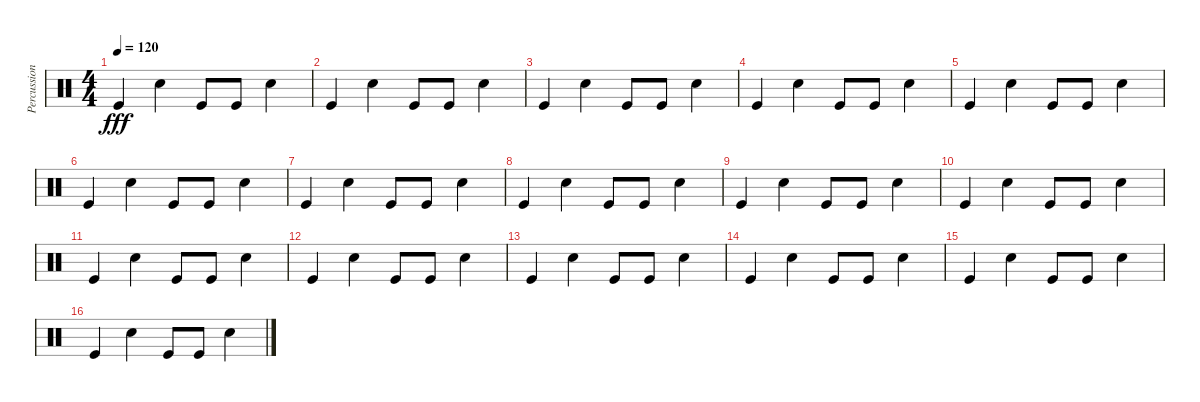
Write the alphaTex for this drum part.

\track ("Percussion" "Percussion") {instrument percussion}
\staff {score}
\articulation defaults
\ts (4 4)
\tempo 120
\clef neutral
\ks c "Kick (hit)".4{dy fff} "Snare (hit) 2".4 "Kick (hit)".8 "Kick (hit)".8 "Snare (hit) 2".4
|
"Kick (hit)".4 "Snare (hit) 2".4 "Kick (hit)".8 "Kick (hit)".8 "Snare (hit) 2".4 |
"Kick (hit)".4 "Snare (hit) 2".4 "Kick (hit)".8 "Kick (hit)".8 "Snare (hit) 2".4 |
"Kick (hit)".4 "Snare (hit) 2".4 "Kick (hit)".8 "Kick (hit)".8 "Snare (hit) 2".4 |
"Kick (hit)".4 "Snare (hit) 2".4 "Kick (hit)".8 "Kick (hit)".8 "Snare (hit) 2".4 |
"Kick (hit)".4 "Snare (hit) 2".4 "Kick (hit)".8 "Kick (hit)".8 "Snare (hit) 2".4 |
"Kick (hit)".4 "Snare (hit) 2".4 "Kick (hit)".8 "Kick (hit)".8 "Snare (hit) 2".4 |
"Kick (hit)".4 "Snare (hit) 2".4 "Kick (hit)".8 "Kick (hit)".8 "Snare (hit) 2".4 |
"Kick (hit)".4 "Snare (hit) 2".4 "Kick (hit)".8 "Kick (hit)".8 "Snare (hit) 2".4 |
"Kick (hit)".4 "Snare (hit) 2".4 "Kick (hit)".8 "Kick (hit)".8 "Snare (hit) 2".4 |
"Kick (hit)".4 "Snare (hit) 2".4 "Kick (hit)".8 "Kick (hit)".8 "Snare (hit) 2".4 |
"Kick (hit)".4 "Snare (hit) 2".4 "Kick (hit)".8 "Kick (hit)".8 "Snare (hit) 2".4 |
"Kick (hit)".4 "Snare (hit) 2".4 "Kick (hit)".8 "Kick (hit)".8 "Snare (hit) 2".4 |
"Kick (hit)".4 "Snare (hit) 2".4 "Kick (hit)".8 "Kick (hit)".8 "Snare (hit) 2".4 |
"Kick (hit)".4 "Snare (hit) 2".4 "Kick (hit)".8 "Kick (hit)".8 "Snare (hit) 2".4 |
"Kick (hit)".4 "Snare (hit) 2".4 "Kick (hit)".8 "Kick (hit)".8 "Snare (hit) 2".4
